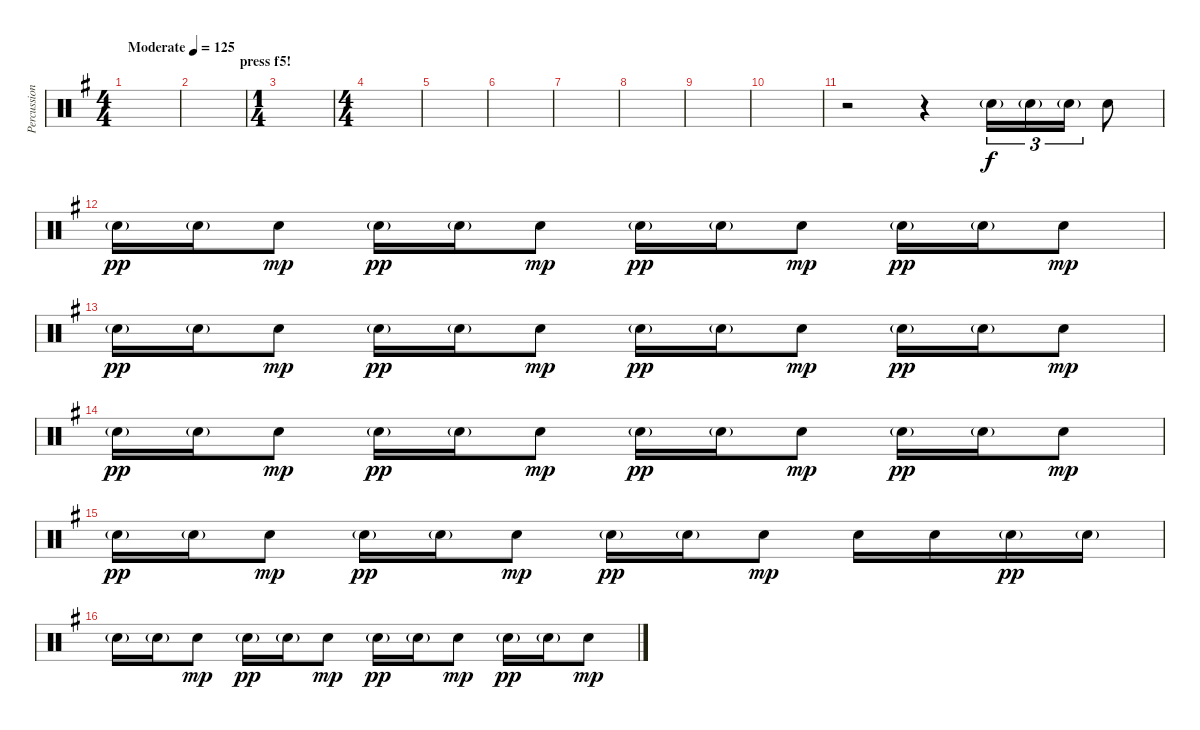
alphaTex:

\track ("Percussion" "Percussion") {instrument percussion}
\staff {score}
\articulation defaults
\ts (4 4)
\section ("" "                                press f5!")
\tempo (125 "Moderate")
\clef neutral
\ks eminor
|
|
\ts (1 4)
|
\ts (4 4)
|
|
|
|
|
|
|
r.2 r.4 "Snare (hit) 2"{g}.16{tu (3 2)} "Snare (hit) 2"{g}.16{tu (3 2)} "Snare (hit) 2"{g}.16{tu (3 2)} "Snare (hit) 2".8 |
"Snare (hit) 2"{g}.16{dy pp} "Snare (hit) 2"{g}.16 "Snare (hit) 2".8{dy mp} "Snare (hit) 2"{g}.16{dy pp} "Snare (hit) 2"{g}.16 "Snare (hit) 2".8{dy mp} "Snare (hit) 2"{g}.16{dy pp} "Snare (hit) 2"{g}.16 "Snare (hit) 2".8{dy mp} "Snare (hit) 2"{g}.16{dy pp} "Snare (hit) 2"{g}.16 "Snare (hit) 2".8{dy mp} |
"Snare (hit) 2"{g}.16{dy pp} "Snare (hit) 2"{g}.16 "Snare (hit) 2".8{dy mp} "Snare (hit) 2"{g}.16{dy pp} "Snare (hit) 2"{g}.16 "Snare (hit) 2".8{dy mp} "Snare (hit) 2"{g}.16{dy pp} "Snare (hit) 2"{g}.16 "Snare (hit) 2".8{dy mp} "Snare (hit) 2"{g}.16{dy pp} "Snare (hit) 2"{g}.16 "Snare (hit) 2".8{dy mp} |
"Snare (hit) 2"{g}.16{dy pp} "Snare (hit) 2"{g}.16 "Snare (hit) 2".8{dy mp} "Snare (hit) 2"{g}.16{dy pp} "Snare (hit) 2"{g}.16 "Snare (hit) 2".8{dy mp} "Snare (hit) 2"{g}.16{dy pp} "Snare (hit) 2"{g}.16 "Snare (hit) 2".8{dy mp} "Snare (hit) 2"{g}.16{dy pp} "Snare (hit) 2"{g}.16 "Snare (hit) 2".8{dy mp} |
"Snare (hit) 2"{g}.16{dy pp} "Snare (hit) 2"{g}.16 "Snare (hit) 2".8{dy mp} "Snare (hit) 2"{g}.16{dy pp} "Snare (hit) 2"{g}.16 "Snare (hit) 2".8{dy mp} "Snare (hit) 2"{g}.16{dy pp} "Snare (hit) 2"{g}.16 "Snare (hit) 2".8{dy mp} "Snare (hit) 2".16 "Snare (hit) 2".16 "Snare (hit) 2"{g}.16{dy pp} "Snare (hit) 2"{g}.16 |
"Snare (hit) 2"{g}.16 "Snare (hit) 2"{g}.16 "Snare (hit) 2".8{dy mp} "Snare (hit) 2"{g}.16{dy pp} "Snare (hit) 2"{g}.16 "Snare (hit) 2".8{dy mp} "Snare (hit) 2"{g}.16{dy pp} "Snare (hit) 2"{g}.16 "Snare (hit) 2".8{dy mp} "Snare (hit) 2"{g}.16{dy pp} "Snare (hit) 2"{g}.16 "Snare (hit) 2".8{dy mp}
